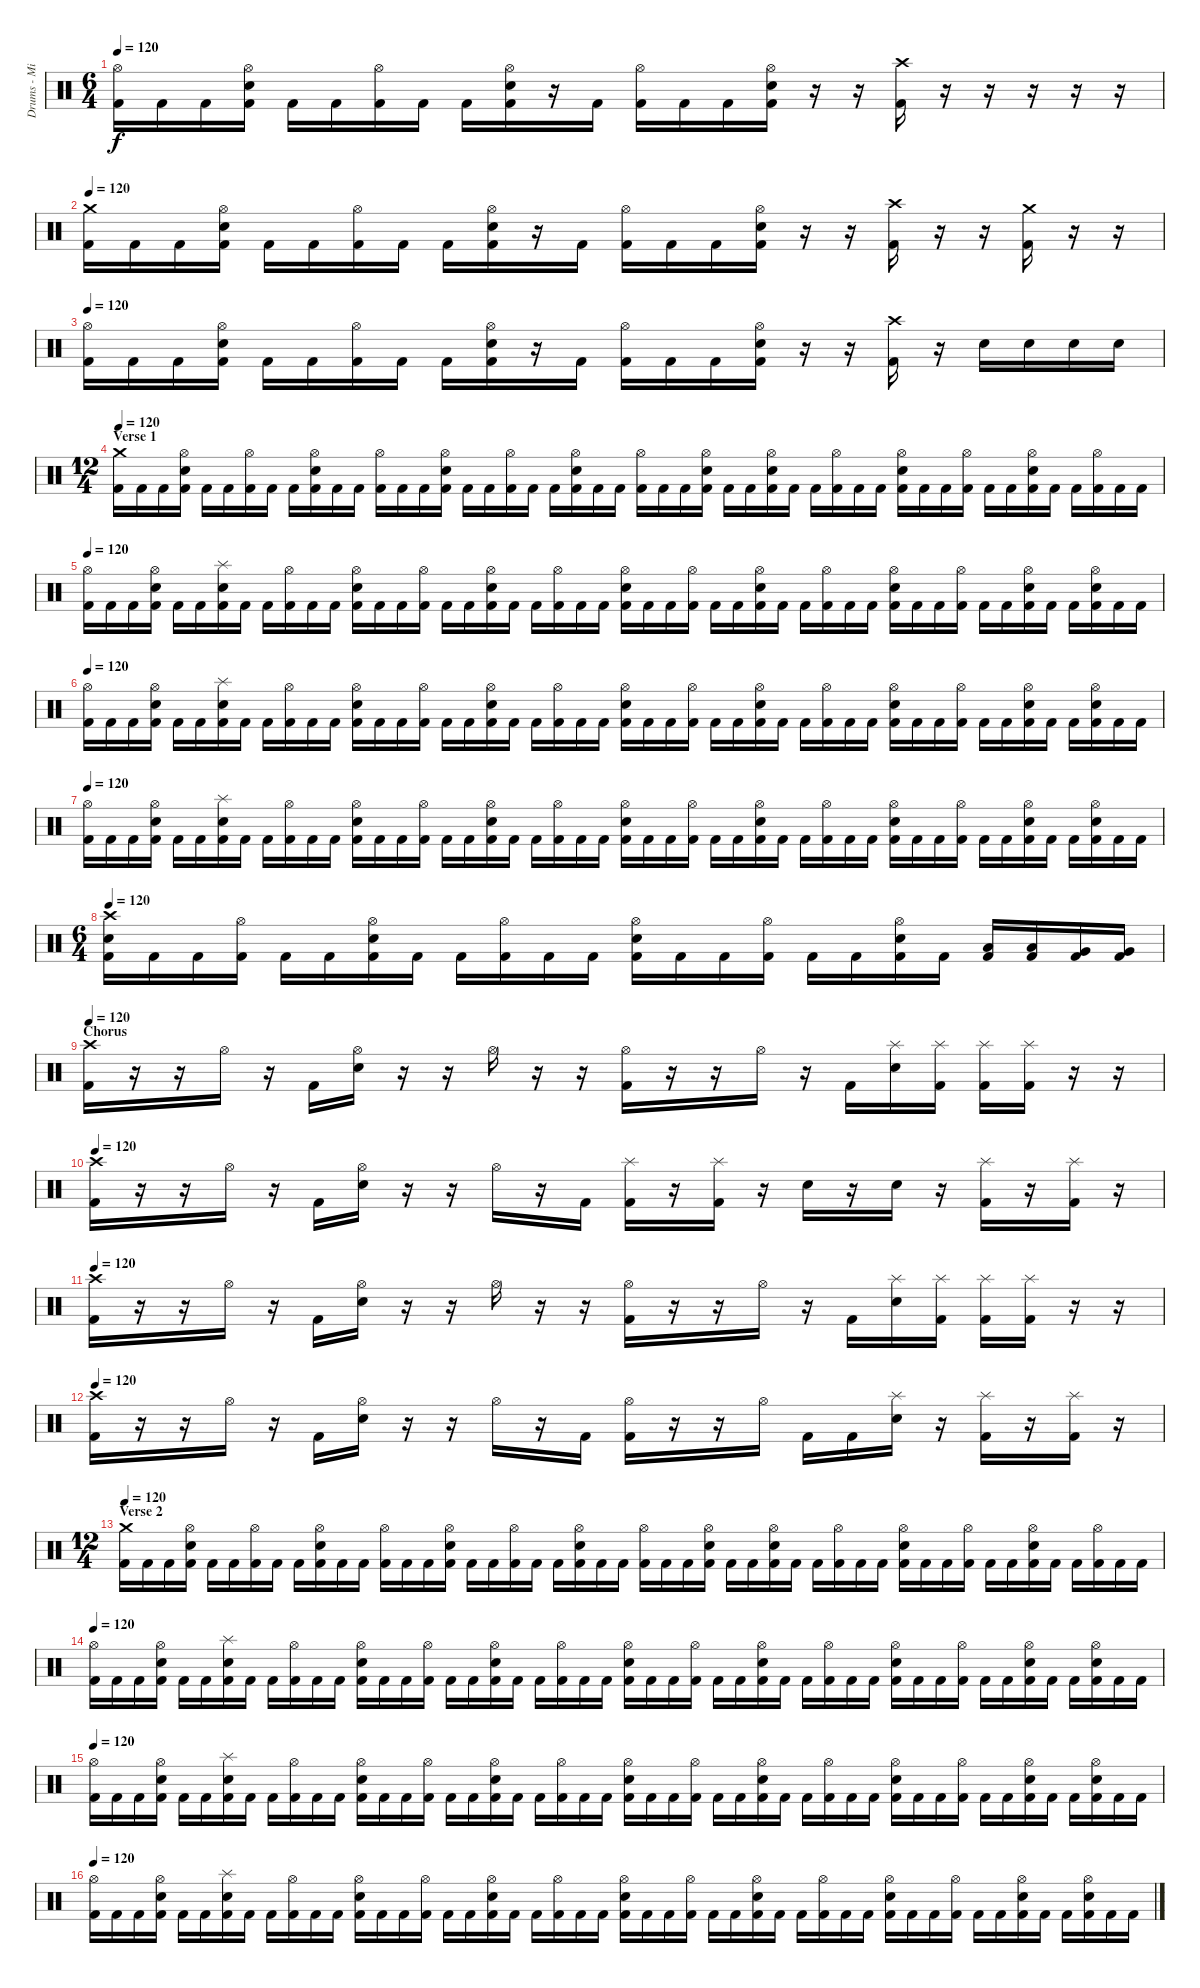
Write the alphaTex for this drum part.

\track ("Drums - Mikkey Dee" "Drums - Mi") {instrument percussion}
\staff {score}
\articulation defaults
\ts (6 4)
\tempo 120
\clef neutral
\ks c
("Hi-Hat (open)" "Kick (hit) 2").16{dy f} "Kick (hit) 2".16 "Kick (hit) 2".16 ("Hi-Hat (open)" "Electric Snare (hit)" "Kick (hit) 2").16 "Kick (hit) 2".16 "Kick (hit) 2".16 ("Hi-Hat (open)" "Kick (hit) 2").16 "Kick (hit) 2".16 "Kick (hit) 2".16 ("Hi-Hat (open)" "Electric Snare (hit)" "Kick (hit) 2").16 r.16 "Kick (hit) 2".16 ("Hi-Hat (open)" "Kick (hit) 2").16 "Kick (hit) 2".16 "Kick (hit) 2".16 ("Hi-Hat (open)" "Electric Snare (hit)" "Kick (hit) 2").16 r.16 r.16 ("Crash high (hit)" "Kick (hit) 2").16 r.16 r.16 r.16 r.16 r.16 |
\tempo 120
("Crash medium (hit)" "Kick (hit) 2").16 "Kick (hit) 2".16 "Kick (hit) 2".16 ("Hi-Hat (open)" "Electric Snare (hit)" "Kick (hit) 2").16 "Kick (hit) 2".16 "Kick (hit) 2".16 ("Hi-Hat (open)" "Kick (hit) 2").16 "Kick (hit) 2".16 "Kick (hit) 2".16 ("Hi-Hat (open)" "Electric Snare (hit)" "Kick (hit) 2").16 r.16 "Kick (hit) 2".16 ("Hi-Hat (open)" "Kick (hit) 2").16 "Kick (hit) 2".16 "Kick (hit) 2".16 ("Hi-Hat (open)" "Electric Snare (hit)" "Kick (hit) 2").16 r.16 r.16 ("Crash high (hit)" "Kick (hit) 2").16 r.16 r.16 ("Crash medium (hit)" "Kick (hit) 2").16 r.16 r.16 |
\tempo 120
("Hi-Hat (open)" "Kick (hit) 2").16 "Kick (hit) 2".16 "Kick (hit) 2".16 ("Hi-Hat (open)" "Electric Snare (hit)" "Kick (hit) 2").16 "Kick (hit) 2".16 "Kick (hit) 2".16 ("Hi-Hat (open)" "Kick (hit) 2").16 "Kick (hit) 2".16 "Kick (hit) 2".16 ("Hi-Hat (open)" "Electric Snare (hit)" "Kick (hit) 2").16 r.16 "Kick (hit) 2".16 ("Hi-Hat (open)" "Kick (hit) 2").16 "Kick (hit) 2".16 "Kick (hit) 2".16 ("Hi-Hat (open)" "Electric Snare (hit)" "Kick (hit) 2").16 r.16 r.16 ("Crash high (hit)" "Kick (hit) 2").16 r.16 "Electric Snare (hit)".16 "Electric Snare (hit)".16 "Electric Snare (hit)".16 "Electric Snare (hit)".16 |
\ts (12 4)
\section ("" "Verse 1")
\tempo 120
("Crash medium (hit)" "Kick (hit) 2").16 "Kick (hit) 2".16 "Kick (hit) 2".16 ("Hi-Hat (open)" "Electric Snare (hit)" "Kick (hit) 2").16 "Kick (hit) 2".16 "Kick (hit) 2".16 ("Hi-Hat (open)" "Kick (hit) 2").16 "Kick (hit) 2".16 "Kick (hit) 2".16 ("Hi-Hat (open)" "Electric Snare (hit)" "Kick (hit) 2").16 "Kick (hit) 2".16 "Kick (hit) 2".16 ("Hi-Hat (open)" "Kick (hit) 2").16 "Kick (hit) 2".16 "Kick (hit) 2".16 ("Hi-Hat (open)" "Electric Snare (hit)" "Kick (hit) 2").16 "Kick (hit) 2".16 "Kick (hit) 2".16 ("Hi-Hat (open)" "Kick (hit) 2").16 "Kick (hit) 2".16 "Kick (hit) 2".16 ("Hi-Hat (open)" "Electric Snare (hit)" "Kick (hit) 2").16 "Kick (hit) 2".16 "Kick (hit) 2".16 ("Hi-Hat (open)" "Kick (hit) 2").16 "Kick (hit) 2".16 "Kick (hit) 2".16 ("Hi-Hat (open)" "Electric Snare (hit)" "Kick (hit) 2").16 "Kick (hit) 2".16 "Kick (hit) 2".16 ("Hi-Hat (open)" "Electric Snare (hit)" "Kick (hit) 2").16 "Kick (hit) 2".16 "Kick (hit) 2".16 ("Hi-Hat (open)" "Kick (hit) 2").16 "Kick (hit) 2".16 "Kick (hit) 2".16 ("Hi-Hat (open)" "Electric Snare (hit)" "Kick (hit) 2").16 "Kick (hit) 2".16 "Kick (hit) 2".16 ("Hi-Hat (open)" "Kick (hit) 2").16 "Kick (hit) 2".16 "Kick (hit) 2".16 ("Hi-Hat (open)" "Electric Snare (hit)" "Kick (hit) 2").16 "Kick (hit) 2".16 "Kick (hit) 2".16 ("Hi-Hat (open)" "Kick (hit) 2").16 "Kick (hit) 2".16 "Kick (hit) 2".16 |
\tempo 120
("Hi-Hat (open)" "Kick (hit) 2").16 "Kick (hit) 2".16 "Kick (hit) 2".16 ("Hi-Hat (open)" "Electric Snare (hit)" "Kick (hit) 2").16 "Kick (hit) 2".16 "Kick (hit) 2".16 ("Splash (hit)" "Electric Snare (hit)" "Kick (hit) 2").16 "Kick (hit) 2".16 "Kick (hit) 2".16 ("Hi-Hat (open)" "Kick (hit) 2").16 "Kick (hit) 2".16 "Kick (hit) 2".16 ("Hi-Hat (open)" "Electric Snare (hit)" "Kick (hit) 2").16 "Kick (hit) 2".16 "Kick (hit) 2".16 ("Hi-Hat (open)" "Kick (hit) 2").16 "Kick (hit) 2".16 "Kick (hit) 2".16 ("Hi-Hat (open)" "Electric Snare (hit)" "Kick (hit) 2").16 "Kick (hit) 2".16 "Kick (hit) 2".16 ("Hi-Hat (open)" "Kick (hit) 2").16 "Kick (hit) 2".16 "Kick (hit) 2".16 ("Hi-Hat (open)" "Electric Snare (hit)" "Kick (hit) 2").16 "Kick (hit) 2".16 "Kick (hit) 2".16 ("Hi-Hat (open)" "Kick (hit) 2").16 "Kick (hit) 2".16 "Kick (hit) 2".16 ("Hi-Hat (open)" "Electric Snare (hit)" "Kick (hit) 2").16 "Kick (hit) 2".16 "Kick (hit) 2".16 ("Hi-Hat (open)" "Kick (hit) 2").16 "Kick (hit) 2".16 "Kick (hit) 2".16 ("Hi-Hat (open)" "Electric Snare (hit)" "Kick (hit) 2").16 "Kick (hit) 2".16 "Kick (hit) 2".16 ("Hi-Hat (open)" "Kick (hit) 2").16 "Kick (hit) 2".16 "Kick (hit) 2".16 ("Hi-Hat (open)" "Electric Snare (hit)" "Kick (hit) 2").16 "Kick (hit) 2".16 "Kick (hit) 2".16 ("Hi-Hat (open)" "Electric Snare (hit)" "Kick (hit) 2").16 "Kick (hit) 2".16 "Kick (hit) 2".16 |
\tempo 120
("Hi-Hat (open)" "Kick (hit) 2").16 "Kick (hit) 2".16 "Kick (hit) 2".16 ("Hi-Hat (open)" "Electric Snare (hit)" "Kick (hit) 2").16 "Kick (hit) 2".16 "Kick (hit) 2".16 ("Splash (hit)" "Electric Snare (hit)" "Kick (hit) 2").16 "Kick (hit) 2".16 "Kick (hit) 2".16 ("Hi-Hat (open)" "Kick (hit) 2").16 "Kick (hit) 2".16 "Kick (hit) 2".16 ("Hi-Hat (open)" "Electric Snare (hit)" "Kick (hit) 2").16 "Kick (hit) 2".16 "Kick (hit) 2".16 ("Hi-Hat (open)" "Kick (hit) 2").16 "Kick (hit) 2".16 "Kick (hit) 2".16 ("Hi-Hat (open)" "Electric Snare (hit)" "Kick (hit) 2").16 "Kick (hit) 2".16 "Kick (hit) 2".16 ("Hi-Hat (open)" "Kick (hit) 2").16 "Kick (hit) 2".16 "Kick (hit) 2".16 ("Hi-Hat (open)" "Electric Snare (hit)" "Kick (hit) 2").16 "Kick (hit) 2".16 "Kick (hit) 2".16 ("Hi-Hat (open)" "Kick (hit) 2").16 "Kick (hit) 2".16 "Kick (hit) 2".16 ("Hi-Hat (open)" "Electric Snare (hit)" "Kick (hit) 2").16 "Kick (hit) 2".16 "Kick (hit) 2".16 ("Hi-Hat (open)" "Kick (hit) 2").16 "Kick (hit) 2".16 "Kick (hit) 2".16 ("Hi-Hat (open)" "Electric Snare (hit)" "Kick (hit) 2").16 "Kick (hit) 2".16 "Kick (hit) 2".16 ("Hi-Hat (open)" "Kick (hit) 2").16 "Kick (hit) 2".16 "Kick (hit) 2".16 ("Hi-Hat (open)" "Electric Snare (hit)" "Kick (hit) 2").16 "Kick (hit) 2".16 "Kick (hit) 2".16 ("Hi-Hat (open)" "Electric Snare (hit)" "Kick (hit) 2").16 "Kick (hit) 2".16 "Kick (hit) 2".16 |
\tempo 120
("Hi-Hat (open)" "Kick (hit) 2").16 "Kick (hit) 2".16 "Kick (hit) 2".16 ("Hi-Hat (open)" "Electric Snare (hit)" "Kick (hit) 2").16 "Kick (hit) 2".16 "Kick (hit) 2".16 ("Splash (hit)" "Electric Snare (hit)" "Kick (hit) 2").16 "Kick (hit) 2".16 "Kick (hit) 2".16 ("Hi-Hat (open)" "Kick (hit) 2").16 "Kick (hit) 2".16 "Kick (hit) 2".16 ("Hi-Hat (open)" "Electric Snare (hit)" "Kick (hit) 2").16 "Kick (hit) 2".16 "Kick (hit) 2".16 ("Hi-Hat (open)" "Kick (hit) 2").16 "Kick (hit) 2".16 "Kick (hit) 2".16 ("Hi-Hat (open)" "Electric Snare (hit)" "Kick (hit) 2").16 "Kick (hit) 2".16 "Kick (hit) 2".16 ("Hi-Hat (open)" "Kick (hit) 2").16 "Kick (hit) 2".16 "Kick (hit) 2".16 ("Hi-Hat (open)" "Electric Snare (hit)" "Kick (hit) 2").16 "Kick (hit) 2".16 "Kick (hit) 2".16 ("Hi-Hat (open)" "Kick (hit) 2").16 "Kick (hit) 2".16 "Kick (hit) 2".16 ("Hi-Hat (open)" "Electric Snare (hit)" "Kick (hit) 2").16 "Kick (hit) 2".16 "Kick (hit) 2".16 ("Hi-Hat (open)" "Kick (hit) 2").16 "Kick (hit) 2".16 "Kick (hit) 2".16 ("Hi-Hat (open)" "Electric Snare (hit)" "Kick (hit) 2").16 "Kick (hit) 2".16 "Kick (hit) 2".16 ("Hi-Hat (open)" "Kick (hit) 2").16 "Kick (hit) 2".16 "Kick (hit) 2".16 ("Hi-Hat (open)" "Electric Snare (hit)" "Kick (hit) 2").16 "Kick (hit) 2".16 "Kick (hit) 2".16 ("Hi-Hat (open)" "Electric Snare (hit)" "Kick (hit) 2").16 "Kick (hit) 2".16 "Kick (hit) 2".16 |
\ts (6 4)
\tempo 120
("Crash high (hit)" "Electric Snare (hit)" "Kick (hit) 2").16 "Kick (hit) 2".16 "Kick (hit) 2".16 ("Hi-Hat (open)" "Kick (hit) 2").16 "Kick (hit) 2".16 "Kick (hit) 2".16 ("Hi-Hat (open)" "Electric Snare (hit)" "Kick (hit) 2").16 "Kick (hit) 2".16 "Kick (hit) 2".16 ("Hi-Hat (open)" "Kick (hit) 2").16 "Kick (hit) 2".16 "Kick (hit) 2".16 ("Hi-Hat (open)" "Electric Snare (hit)" "Kick (hit) 2").16 "Kick (hit) 2".16 "Kick (hit) 2".16 ("Hi-Hat (open)" "Kick (hit) 2").16 "Kick (hit) 2".16 "Kick (hit) 2".16 ("Hi-Hat (open)" "Electric Snare (hit)" "Kick (hit) 2").16 "Kick (hit) 2".16 ("Low Tom (hit)" "Kick (hit) 2").16 ("Low Tom (hit)" "Kick (hit) 2").16 ("Very Low Tom (hit)" "Kick (hit) 2").16 ("Very Low Tom (hit)" "Kick (hit) 2").16 |
\section ("" "Chorus")
\tempo 120
("Crash high (hit)" "Kick (hit) 2").16 r.16 r.16 "Hi-Hat (open)".16 r.16 "Kick (hit) 2".16 ("Hi-Hat (open)" "Electric Snare (hit)").16 r.16 r.16 "Hi-Hat (open)".16 r.16 r.16 ("Hi-Hat (open)" "Kick (hit) 2").16 r.16 r.16 "Hi-Hat (open)".16 r.16 "Kick (hit) 2".16 ("Splash (hit)" "Electric Snare (hit)").16 ("Splash (hit)" "Kick (hit) 2").16 ("Splash (hit)" "Kick (hit) 2").16 ("Splash (hit)" "Kick (hit) 2").16 r.16 r.16 |
\tempo 120
("Crash high (hit)" "Kick (hit) 2").16 r.16 r.16 "Hi-Hat (open)".16 r.16 "Kick (hit) 2".16 ("Hi-Hat (open)" "Electric Snare (hit)").16 r.16 r.16 "Hi-Hat (open)".16 r.16 "Kick (hit) 2".16 ("Splash (hit)" "Kick (hit) 2").16 r.16 ("Splash (hit)" "Kick (hit) 2").16 r.16 "Electric Snare (hit)".16 r.16 "Electric Snare (hit)".16 r.16 ("Splash (hit)" "Kick (hit) 2").16 r.16 ("Splash (hit)" "Kick (hit) 2").16 r.16 |
\tempo 120
("Crash high (hit)" "Kick (hit) 2").16 r.16 r.16 "Hi-Hat (open)".16 r.16 "Kick (hit) 2".16 ("Hi-Hat (open)" "Electric Snare (hit)").16 r.16 r.16 "Hi-Hat (open)".16 r.16 r.16 ("Hi-Hat (open)" "Kick (hit) 2").16 r.16 r.16 "Hi-Hat (open)".16 r.16 "Kick (hit) 2".16 ("Splash (hit)" "Electric Snare (hit)").16 ("Splash (hit)" "Kick (hit) 2").16 ("Splash (hit)" "Kick (hit) 2").16 ("Splash (hit)" "Kick (hit) 2").16 r.16 r.16 |
\tempo 120
("Crash high (hit)" "Kick (hit) 2").16 r.16 r.16 "Hi-Hat (open)".16 r.16 "Kick (hit) 2".16 ("Hi-Hat (open)" "Electric Snare (hit)").16 r.16 r.16 "Hi-Hat (open)".16 r.16 "Kick (hit) 2".16 ("Hi-Hat (open)" "Kick (hit) 2").16 r.16 r.16 "Hi-Hat (open)".16 "Kick (hit) 2".16 "Kick (hit) 2".16 ("Splash (hit)" "Electric Snare (hit)").16 r.16 ("Splash (hit)" "Kick (hit) 2").16 r.16 ("Splash (hit)" "Kick (hit) 2").16 r.16 |
\ts (12 4)
\section ("" "Verse 2")
\tempo 120
("Crash medium (hit)" "Kick (hit) 2").16 "Kick (hit) 2".16 "Kick (hit) 2".16 ("Hi-Hat (open)" "Electric Snare (hit)" "Kick (hit) 2").16 "Kick (hit) 2".16 "Kick (hit) 2".16 ("Hi-Hat (open)" "Kick (hit) 2").16 "Kick (hit) 2".16 "Kick (hit) 2".16 ("Hi-Hat (open)" "Electric Snare (hit)" "Kick (hit) 2").16 "Kick (hit) 2".16 "Kick (hit) 2".16 ("Hi-Hat (open)" "Kick (hit) 2").16 "Kick (hit) 2".16 "Kick (hit) 2".16 ("Hi-Hat (open)" "Electric Snare (hit)" "Kick (hit) 2").16 "Kick (hit) 2".16 "Kick (hit) 2".16 ("Hi-Hat (open)" "Kick (hit) 2").16 "Kick (hit) 2".16 "Kick (hit) 2".16 ("Hi-Hat (open)" "Electric Snare (hit)" "Kick (hit) 2").16 "Kick (hit) 2".16 "Kick (hit) 2".16 ("Hi-Hat (open)" "Kick (hit) 2").16 "Kick (hit) 2".16 "Kick (hit) 2".16 ("Hi-Hat (open)" "Electric Snare (hit)" "Kick (hit) 2").16 "Kick (hit) 2".16 "Kick (hit) 2".16 ("Hi-Hat (open)" "Electric Snare (hit)" "Kick (hit) 2").16 "Kick (hit) 2".16 "Kick (hit) 2".16 ("Hi-Hat (open)" "Kick (hit) 2").16 "Kick (hit) 2".16 "Kick (hit) 2".16 ("Hi-Hat (open)" "Electric Snare (hit)" "Kick (hit) 2").16 "Kick (hit) 2".16 "Kick (hit) 2".16 ("Hi-Hat (open)" "Kick (hit) 2").16 "Kick (hit) 2".16 "Kick (hit) 2".16 ("Hi-Hat (open)" "Electric Snare (hit)" "Kick (hit) 2").16 "Kick (hit) 2".16 "Kick (hit) 2".16 ("Hi-Hat (open)" "Kick (hit) 2").16 "Kick (hit) 2".16 "Kick (hit) 2".16 |
\tempo 120
("Hi-Hat (open)" "Kick (hit) 2").16 "Kick (hit) 2".16 "Kick (hit) 2".16 ("Hi-Hat (open)" "Electric Snare (hit)" "Kick (hit) 2").16 "Kick (hit) 2".16 "Kick (hit) 2".16 ("Splash (hit)" "Electric Snare (hit)" "Kick (hit) 2").16 "Kick (hit) 2".16 "Kick (hit) 2".16 ("Hi-Hat (open)" "Kick (hit) 2").16 "Kick (hit) 2".16 "Kick (hit) 2".16 ("Hi-Hat (open)" "Electric Snare (hit)" "Kick (hit) 2").16 "Kick (hit) 2".16 "Kick (hit) 2".16 ("Hi-Hat (open)" "Kick (hit) 2").16 "Kick (hit) 2".16 "Kick (hit) 2".16 ("Hi-Hat (open)" "Electric Snare (hit)" "Kick (hit) 2").16 "Kick (hit) 2".16 "Kick (hit) 2".16 ("Hi-Hat (open)" "Kick (hit) 2").16 "Kick (hit) 2".16 "Kick (hit) 2".16 ("Hi-Hat (open)" "Electric Snare (hit)" "Kick (hit) 2").16 "Kick (hit) 2".16 "Kick (hit) 2".16 ("Hi-Hat (open)" "Kick (hit) 2").16 "Kick (hit) 2".16 "Kick (hit) 2".16 ("Hi-Hat (open)" "Electric Snare (hit)" "Kick (hit) 2").16 "Kick (hit) 2".16 "Kick (hit) 2".16 ("Hi-Hat (open)" "Kick (hit) 2").16 "Kick (hit) 2".16 "Kick (hit) 2".16 ("Hi-Hat (open)" "Electric Snare (hit)" "Kick (hit) 2").16 "Kick (hit) 2".16 "Kick (hit) 2".16 ("Hi-Hat (open)" "Kick (hit) 2").16 "Kick (hit) 2".16 "Kick (hit) 2".16 ("Hi-Hat (open)" "Electric Snare (hit)" "Kick (hit) 2").16 "Kick (hit) 2".16 "Kick (hit) 2".16 ("Hi-Hat (open)" "Electric Snare (hit)" "Kick (hit) 2").16 "Kick (hit) 2".16 "Kick (hit) 2".16 |
\tempo 120
("Hi-Hat (open)" "Kick (hit) 2").16 "Kick (hit) 2".16 "Kick (hit) 2".16 ("Hi-Hat (open)" "Electric Snare (hit)" "Kick (hit) 2").16 "Kick (hit) 2".16 "Kick (hit) 2".16 ("Splash (hit)" "Electric Snare (hit)" "Kick (hit) 2").16 "Kick (hit) 2".16 "Kick (hit) 2".16 ("Hi-Hat (open)" "Kick (hit) 2").16 "Kick (hit) 2".16 "Kick (hit) 2".16 ("Hi-Hat (open)" "Electric Snare (hit)" "Kick (hit) 2").16 "Kick (hit) 2".16 "Kick (hit) 2".16 ("Hi-Hat (open)" "Kick (hit) 2").16 "Kick (hit) 2".16 "Kick (hit) 2".16 ("Hi-Hat (open)" "Electric Snare (hit)" "Kick (hit) 2").16 "Kick (hit) 2".16 "Kick (hit) 2".16 ("Hi-Hat (open)" "Kick (hit) 2").16 "Kick (hit) 2".16 "Kick (hit) 2".16 ("Hi-Hat (open)" "Electric Snare (hit)" "Kick (hit) 2").16 "Kick (hit) 2".16 "Kick (hit) 2".16 ("Hi-Hat (open)" "Kick (hit) 2").16 "Kick (hit) 2".16 "Kick (hit) 2".16 ("Hi-Hat (open)" "Electric Snare (hit)" "Kick (hit) 2").16 "Kick (hit) 2".16 "Kick (hit) 2".16 ("Hi-Hat (open)" "Kick (hit) 2").16 "Kick (hit) 2".16 "Kick (hit) 2".16 ("Hi-Hat (open)" "Electric Snare (hit)" "Kick (hit) 2").16 "Kick (hit) 2".16 "Kick (hit) 2".16 ("Hi-Hat (open)" "Kick (hit) 2").16 "Kick (hit) 2".16 "Kick (hit) 2".16 ("Hi-Hat (open)" "Electric Snare (hit)" "Kick (hit) 2").16 "Kick (hit) 2".16 "Kick (hit) 2".16 ("Hi-Hat (open)" "Electric Snare (hit)" "Kick (hit) 2").16 "Kick (hit) 2".16 "Kick (hit) 2".16 |
\tempo 120
("Hi-Hat (open)" "Kick (hit) 2").16 "Kick (hit) 2".16 "Kick (hit) 2".16 ("Hi-Hat (open)" "Electric Snare (hit)" "Kick (hit) 2").16 "Kick (hit) 2".16 "Kick (hit) 2".16 ("Splash (hit)" "Electric Snare (hit)" "Kick (hit) 2").16 "Kick (hit) 2".16 "Kick (hit) 2".16 ("Hi-Hat (open)" "Kick (hit) 2").16 "Kick (hit) 2".16 "Kick (hit) 2".16 ("Hi-Hat (open)" "Electric Snare (hit)" "Kick (hit) 2").16 "Kick (hit) 2".16 "Kick (hit) 2".16 ("Hi-Hat (open)" "Kick (hit) 2").16 "Kick (hit) 2".16 "Kick (hit) 2".16 ("Hi-Hat (open)" "Electric Snare (hit)" "Kick (hit) 2").16 "Kick (hit) 2".16 "Kick (hit) 2".16 ("Hi-Hat (open)" "Kick (hit) 2").16 "Kick (hit) 2".16 "Kick (hit) 2".16 ("Hi-Hat (open)" "Electric Snare (hit)" "Kick (hit) 2").16 "Kick (hit) 2".16 "Kick (hit) 2".16 ("Hi-Hat (open)" "Kick (hit) 2").16 "Kick (hit) 2".16 "Kick (hit) 2".16 ("Hi-Hat (open)" "Electric Snare (hit)" "Kick (hit) 2").16 "Kick (hit) 2".16 "Kick (hit) 2".16 ("Hi-Hat (open)" "Kick (hit) 2").16 "Kick (hit) 2".16 "Kick (hit) 2".16 ("Hi-Hat (open)" "Electric Snare (hit)" "Kick (hit) 2").16 "Kick (hit) 2".16 "Kick (hit) 2".16 ("Hi-Hat (open)" "Kick (hit) 2").16 "Kick (hit) 2".16 "Kick (hit) 2".16 ("Hi-Hat (open)" "Electric Snare (hit)" "Kick (hit) 2").16 "Kick (hit) 2".16 "Kick (hit) 2".16 ("Hi-Hat (open)" "Electric Snare (hit)" "Kick (hit) 2").16 "Kick (hit) 2".16 "Kick (hit) 2".16
